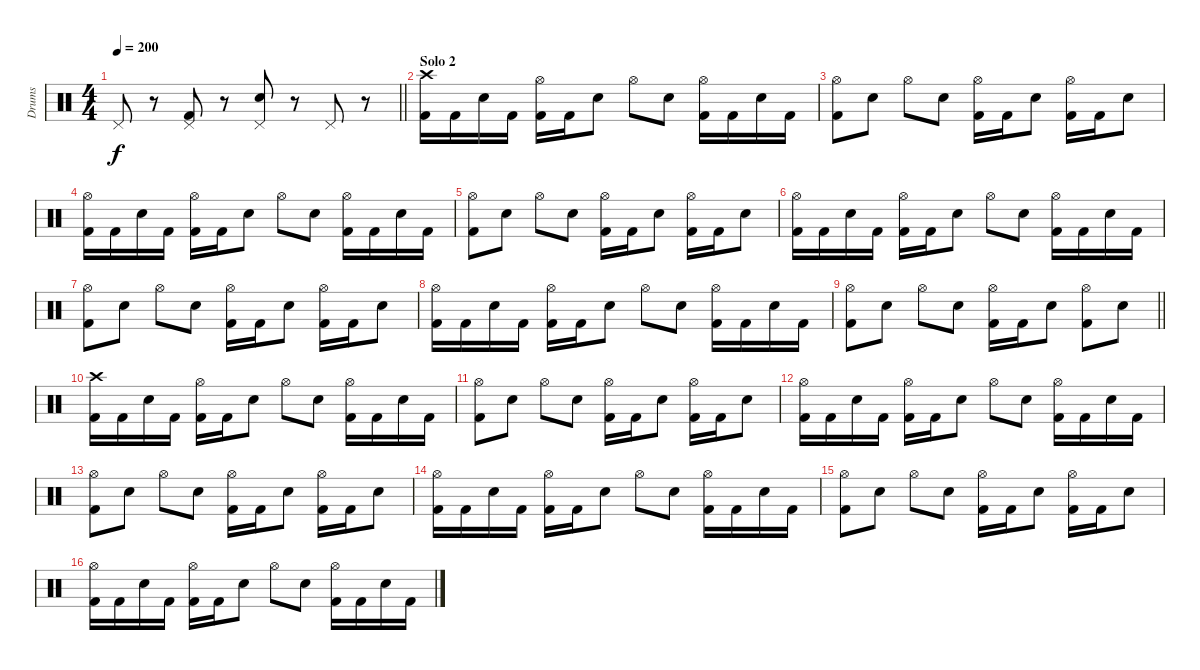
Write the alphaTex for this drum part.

\track ("Drums" "Drums") {instrument percussion}
\staff {score}
\articulation defaults
\ts (4 4)
\tempo 200
\clef neutral
\barLineRight lightlight
\ks c "Pedal Hi-Hat (hit)".8{dy f}
r.8 ("Pedal Hi-Hat (hit)" "Kick (hit) 2").8 r.8 ("Pedal Hi-Hat (hit)" "Snare (hit) 2").8 r.8 "Pedal Hi-Hat (hit)".8 r.8 |
\section ("" "Solo 2")
("Crash high (hit)" "Kick (hit) 2").16 "Kick (hit) 2".16 "Snare (hit) 2".16 "Kick (hit) 2".16 ("Hi-Hat (open)" "Kick (hit) 2").16 "Kick (hit) 2".16 "Snare (hit) 2".8 "Hi-Hat (open)".8 "Snare (hit) 2".8 ("Hi-Hat (open)" "Kick (hit) 2").16 "Kick (hit) 2".16 "Snare (hit) 2".16 "Kick (hit) 2".16 |
("Hi-Hat (open)" "Kick (hit) 2").8 "Snare (hit) 2".8 "Hi-Hat (open)".8 "Snare (hit) 2".8 ("Hi-Hat (open)" "Kick (hit) 2").16 "Kick (hit) 2".16 "Snare (hit) 2".8 ("Hi-Hat (open)" "Kick (hit) 2").16 "Kick (hit) 2".16 "Snare (hit) 2".8 |
("Hi-Hat (open)" "Kick (hit) 2").16 "Kick (hit) 2".16 "Snare (hit) 2".16 "Kick (hit) 2".16 ("Hi-Hat (open)" "Kick (hit) 2").16 "Kick (hit) 2".16 "Snare (hit) 2".8 "Hi-Hat (open)".8 "Snare (hit) 2".8 ("Hi-Hat (open)" "Kick (hit) 2").16 "Kick (hit) 2".16 "Snare (hit) 2".16 "Kick (hit) 2".16 |
("Hi-Hat (open)" "Kick (hit) 2").8 "Snare (hit) 2".8 "Hi-Hat (open)".8 "Snare (hit) 2".8 ("Hi-Hat (open)" "Kick (hit) 2").16 "Kick (hit) 2".16 "Snare (hit) 2".8 ("Hi-Hat (open)" "Kick (hit) 2").16 "Kick (hit) 2".16 "Snare (hit) 2".8 |
("Hi-Hat (open)" "Kick (hit) 2").16 "Kick (hit) 2".16 "Snare (hit) 2".16 "Kick (hit) 2".16 ("Hi-Hat (open)" "Kick (hit) 2").16 "Kick (hit) 2".16 "Snare (hit) 2".8 "Hi-Hat (open)".8 "Snare (hit) 2".8 ("Hi-Hat (open)" "Kick (hit) 2").16 "Kick (hit) 2".16 "Snare (hit) 2".16 "Kick (hit) 2".16 |
("Hi-Hat (open)" "Kick (hit) 2").8 "Snare (hit) 2".8 "Hi-Hat (open)".8 "Snare (hit) 2".8 ("Hi-Hat (open)" "Kick (hit) 2").16 "Kick (hit) 2".16 "Snare (hit) 2".8 ("Hi-Hat (open)" "Kick (hit) 2").16 "Kick (hit) 2".16 "Snare (hit) 2".8 |
("Hi-Hat (open)" "Kick (hit) 2").16 "Kick (hit) 2".16 "Snare (hit) 2".16 "Kick (hit) 2".16 ("Hi-Hat (open)" "Kick (hit) 2").16 "Kick (hit) 2".16 "Snare (hit) 2".8 "Hi-Hat (open)".8 "Snare (hit) 2".8 ("Hi-Hat (open)" "Kick (hit) 2").16 "Kick (hit) 2".16 "Snare (hit) 2".16 "Kick (hit) 2".16 |
\barLineRight lightlight
("Hi-Hat (open)" "Kick (hit) 2").8 "Snare (hit) 2".8 "Hi-Hat (open)".8 "Snare (hit) 2".8 ("Hi-Hat (open)" "Kick (hit) 2").16 "Kick (hit) 2".16 "Snare (hit) 2".8 ("Hi-Hat (open)" "Kick (hit) 2").8 "Snare (hit) 2".8 |
("Crash high (hit)" "Kick (hit) 2").16 "Kick (hit) 2".16 "Snare (hit) 2".16 "Kick (hit) 2".16 ("Hi-Hat (open)" "Kick (hit) 2").16 "Kick (hit) 2".16 "Snare (hit) 2".8 "Hi-Hat (open)".8 "Snare (hit) 2".8 ("Hi-Hat (open)" "Kick (hit) 2").16 "Kick (hit) 2".16 "Snare (hit) 2".16 "Kick (hit) 2".16 |
("Hi-Hat (open)" "Kick (hit) 2").8 "Snare (hit) 2".8 "Hi-Hat (open)".8 "Snare (hit) 2".8 ("Hi-Hat (open)" "Kick (hit) 2").16 "Kick (hit) 2".16 "Snare (hit) 2".8 ("Hi-Hat (open)" "Kick (hit) 2").16 "Kick (hit) 2".16 "Snare (hit) 2".8 |
("Hi-Hat (open)" "Kick (hit) 2").16 "Kick (hit) 2".16 "Snare (hit) 2".16 "Kick (hit) 2".16 ("Hi-Hat (open)" "Kick (hit) 2").16 "Kick (hit) 2".16 "Snare (hit) 2".8 "Hi-Hat (open)".8 "Snare (hit) 2".8 ("Hi-Hat (open)" "Kick (hit) 2").16 "Kick (hit) 2".16 "Snare (hit) 2".16 "Kick (hit) 2".16 |
("Hi-Hat (open)" "Kick (hit) 2").8 "Snare (hit) 2".8 "Hi-Hat (open)".8 "Snare (hit) 2".8 ("Hi-Hat (open)" "Kick (hit) 2").16 "Kick (hit) 2".16 "Snare (hit) 2".8 ("Hi-Hat (open)" "Kick (hit) 2").16 "Kick (hit) 2".16 "Snare (hit) 2".8 |
("Hi-Hat (open)" "Kick (hit) 2").16 "Kick (hit) 2".16 "Snare (hit) 2".16 "Kick (hit) 2".16 ("Hi-Hat (open)" "Kick (hit) 2").16 "Kick (hit) 2".16 "Snare (hit) 2".8 "Hi-Hat (open)".8 "Snare (hit) 2".8 ("Hi-Hat (open)" "Kick (hit) 2").16 "Kick (hit) 2".16 "Snare (hit) 2".16 "Kick (hit) 2".16 |
("Hi-Hat (open)" "Kick (hit) 2").8 "Snare (hit) 2".8 "Hi-Hat (open)".8 "Snare (hit) 2".8 ("Hi-Hat (open)" "Kick (hit) 2").16 "Kick (hit) 2".16 "Snare (hit) 2".8 ("Hi-Hat (open)" "Kick (hit) 2").16 "Kick (hit) 2".16 "Snare (hit) 2".8 |
("Hi-Hat (open)" "Kick (hit) 2").16 "Kick (hit) 2".16 "Snare (hit) 2".16 "Kick (hit) 2".16 ("Hi-Hat (open)" "Kick (hit) 2").16 "Kick (hit) 2".16 "Snare (hit) 2".8 "Hi-Hat (open)".8 "Snare (hit) 2".8 ("Hi-Hat (open)" "Kick (hit) 2").16 "Kick (hit) 2".16 "Snare (hit) 2".16 "Kick (hit) 2".16
